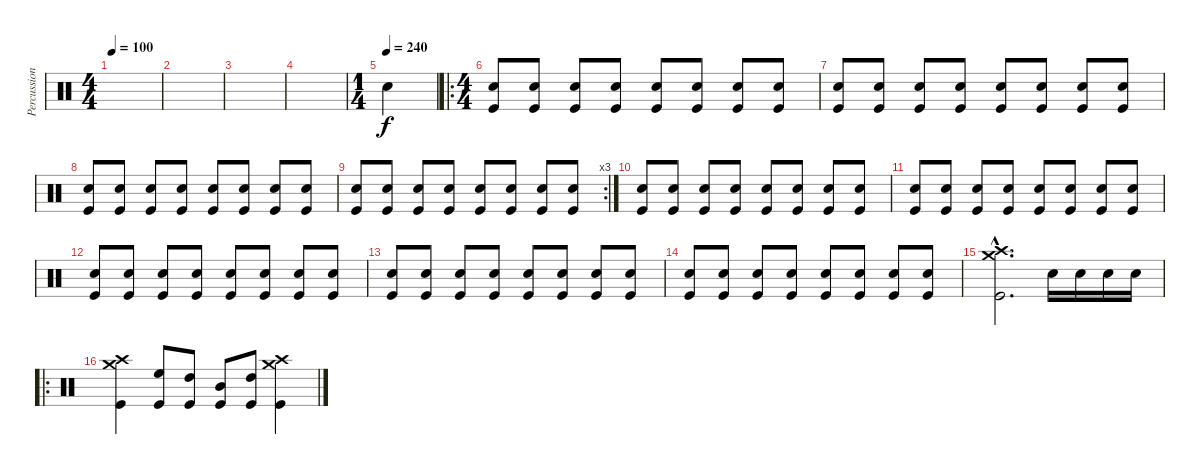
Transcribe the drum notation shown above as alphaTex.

\track ("Percussion" "Percussion") {instrument percussion}
\staff {score}
\articulation defaults
\ts (4 4)
\tempo 100
\clef neutral
\ks c
|
|
|
|
\ts (1 4)
\tempo (240)
"Snare (hit) 2".4 |
\ro
\ts (4 4)
("Snare (hit) 2" "Kick (hit)").8{volume 10} ("Snare (hit) 2" "Kick (hit)").8 ("Snare (hit) 2" "Kick (hit)").8 ("Snare (hit) 2" "Kick (hit)").8 ("Snare (hit) 2" "Kick (hit)").8 ("Snare (hit) 2" "Kick (hit)").8 ("Snare (hit) 2" "Kick (hit)").8 ("Snare (hit) 2" "Kick (hit)").8 |
("Snare (hit) 2" "Kick (hit)").8{volume 10} ("Snare (hit) 2" "Kick (hit)").8 ("Snare (hit) 2" "Kick (hit)").8 ("Snare (hit) 2" "Kick (hit)").8 ("Snare (hit) 2" "Kick (hit)").8 ("Snare (hit) 2" "Kick (hit)").8 ("Snare (hit) 2" "Kick (hit)").8 ("Snare (hit) 2" "Kick (hit)").8 |
("Snare (hit) 2" "Kick (hit)").8{volume 10} ("Snare (hit) 2" "Kick (hit)").8 ("Snare (hit) 2" "Kick (hit)").8 ("Snare (hit) 2" "Kick (hit)").8 ("Snare (hit) 2" "Kick (hit)").8 ("Snare (hit) 2" "Kick (hit)").8 ("Snare (hit) 2" "Kick (hit)").8 ("Snare (hit) 2" "Kick (hit)").8 |
\rc 3
("Snare (hit) 2" "Kick (hit)").8{volume 10} ("Snare (hit) 2" "Kick (hit)").8 ("Snare (hit) 2" "Kick (hit)").8 ("Snare (hit) 2" "Kick (hit)").8 ("Snare (hit) 2" "Kick (hit)").8 ("Snare (hit) 2" "Kick (hit)").8 ("Snare (hit) 2" "Kick (hit)").8 ("Snare (hit) 2" "Kick (hit)").8 |
("Snare (hit) 2" "Kick (hit)").8{volume 10} ("Snare (hit) 2" "Kick (hit)").8 ("Snare (hit) 2" "Kick (hit)").8 ("Snare (hit) 2" "Kick (hit)").8 ("Snare (hit) 2" "Kick (hit)").8 ("Snare (hit) 2" "Kick (hit)").8 ("Snare (hit) 2" "Kick (hit)").8 ("Snare (hit) 2" "Kick (hit)").8 |
("Snare (hit) 2" "Kick (hit)").8{volume 10} ("Snare (hit) 2" "Kick (hit)").8 ("Snare (hit) 2" "Kick (hit)").8 ("Snare (hit) 2" "Kick (hit)").8 ("Snare (hit) 2" "Kick (hit)").8 ("Snare (hit) 2" "Kick (hit)").8 ("Snare (hit) 2" "Kick (hit)").8 ("Snare (hit) 2" "Kick (hit)").8 |
("Snare (hit) 2" "Kick (hit)").8{volume 10} ("Snare (hit) 2" "Kick (hit)").8 ("Snare (hit) 2" "Kick (hit)").8 ("Snare (hit) 2" "Kick (hit)").8 ("Snare (hit) 2" "Kick (hit)").8 ("Snare (hit) 2" "Kick (hit)").8 ("Snare (hit) 2" "Kick (hit)").8 ("Snare (hit) 2" "Kick (hit)").8 |
("Snare (hit) 2" "Kick (hit)").8{volume 10} ("Snare (hit) 2" "Kick (hit)").8 ("Snare (hit) 2" "Kick (hit)").8 ("Snare (hit) 2" "Kick (hit)").8 ("Snare (hit) 2" "Kick (hit)").8 ("Snare (hit) 2" "Kick (hit)").8 ("Snare (hit) 2" "Kick (hit)").8 ("Snare (hit) 2" "Kick (hit)").8 |
("Snare (hit) 2" "Kick (hit)").8{volume 10} ("Snare (hit) 2" "Kick (hit)").8 ("Snare (hit) 2" "Kick (hit)").8 ("Snare (hit) 2" "Kick (hit)").8 ("Snare (hit) 2" "Kick (hit)").8 ("Snare (hit) 2" "Kick (hit)").8 ("Snare (hit) 2" "Kick (hit)").8 ("Snare (hit) 2" "Kick (hit)").8 |
("Crash medium (hit)"{hac} "Crash high (hit)"{hac} "Kick (hit)"{hac}).2{d} "Snare (hit) 2".16 "Snare (hit) 2".16 "Snare (hit) 2".16 "Snare (hit) 2".16 |
\ro
("Crash medium (hit)" "Crash high (hit)" "Kick (hit)").4 ("High Floor Tom (hit)" "Kick (hit)").8 ("High Tom (hit)" "Kick (hit)").8 ("Mid Tom (hit)" "Kick (hit)").8 ("High Tom (hit)" "Kick (hit)").8 ("Crash medium (hit)" "Crash high (hit)" "Kick (hit)").4
